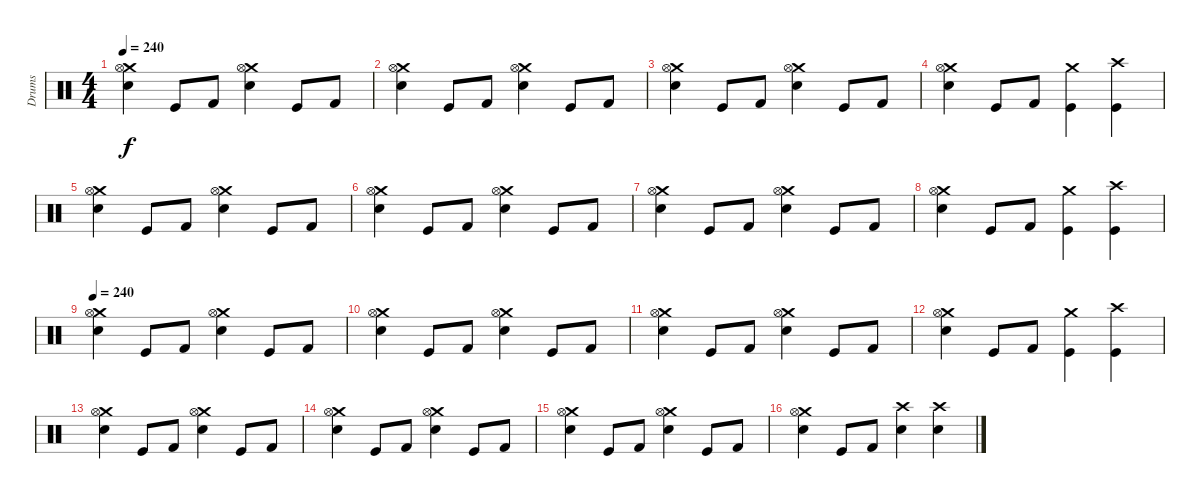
\track ("Drums" "Drums") {instrument percussion}
\staff {score}
\articulation defaults
\ts (4 4)
\tempo 240
\clef neutral
\ks c
("Crash medium (hit)" "Hi-Hat (open)" "Electric Snare (hit)").4{dy f} "Kick (hit)".8 "Kick (hit) 2".8 ("Crash medium (hit)" "Hi-Hat (open)" "Electric Snare (hit)").4 "Kick (hit)".8 "Kick (hit) 2".8 |
("Crash medium (hit)" "Hi-Hat (open)" "Electric Snare (hit)").4 "Kick (hit)".8 "Kick (hit) 2".8 ("Crash medium (hit)" "Hi-Hat (open)" "Electric Snare (hit)").4 "Kick (hit)".8 "Kick (hit) 2".8 |
("Crash medium (hit)" "Hi-Hat (open)" "Electric Snare (hit)").4 "Kick (hit)".8 "Kick (hit) 2".8 ("Crash medium (hit)" "Hi-Hat (open)" "Electric Snare (hit)").4 "Kick (hit)".8 "Kick (hit) 2".8 |
("Crash medium (hit)" "Hi-Hat (open)" "Electric Snare (hit)").4 "Kick (hit)".8 "Kick (hit) 2".8 ("Crash medium (hit)" "Kick (hit)").4 ("Crash high (hit)" "Kick (hit)").4 |
("Crash medium (hit)" "Hi-Hat (open)" "Electric Snare (hit)").4 "Kick (hit)".8 "Kick (hit) 2".8 ("Crash medium (hit)" "Hi-Hat (open)" "Electric Snare (hit)").4 "Kick (hit)".8 "Kick (hit) 2".8 |
("Crash medium (hit)" "Hi-Hat (open)" "Electric Snare (hit)").4 "Kick (hit)".8 "Kick (hit) 2".8 ("Crash medium (hit)" "Hi-Hat (open)" "Electric Snare (hit)").4 "Kick (hit)".8 "Kick (hit) 2".8 |
("Crash medium (hit)" "Hi-Hat (open)" "Electric Snare (hit)").4 "Kick (hit)".8 "Kick (hit) 2".8 ("Crash medium (hit)" "Hi-Hat (open)" "Electric Snare (hit)").4 "Kick (hit)".8 "Kick (hit) 2".8 |
("Crash medium (hit)" "Hi-Hat (open)" "Electric Snare (hit)").4 "Kick (hit)".8 "Kick (hit) 2".8 ("Crash medium (hit)" "Kick (hit)").4 ("Crash high (hit)" "Kick (hit)").4 |
\tempo 240
("Crash medium (hit)" "Hi-Hat (open)" "Electric Snare (hit)").4 "Kick (hit)".8 "Kick (hit) 2".8 ("Crash medium (hit)" "Hi-Hat (open)" "Electric Snare (hit)").4 "Kick (hit)".8 "Kick (hit) 2".8 |
("Crash medium (hit)" "Hi-Hat (open)" "Electric Snare (hit)").4 "Kick (hit)".8 "Kick (hit) 2".8 ("Crash medium (hit)" "Hi-Hat (open)" "Electric Snare (hit)").4 "Kick (hit)".8 "Kick (hit) 2".8 |
("Crash medium (hit)" "Hi-Hat (open)" "Electric Snare (hit)").4 "Kick (hit)".8 "Kick (hit) 2".8 ("Crash medium (hit)" "Hi-Hat (open)" "Electric Snare (hit)").4 "Kick (hit)".8 "Kick (hit) 2".8 |
("Crash medium (hit)" "Hi-Hat (open)" "Electric Snare (hit)").4 "Kick (hit)".8 "Kick (hit) 2".8 ("Crash medium (hit)" "Kick (hit)").4 ("Crash high (hit)" "Kick (hit)").4 |
("Crash medium (hit)" "Hi-Hat (open)" "Electric Snare (hit)").4 "Kick (hit)".8 "Kick (hit) 2".8 ("Crash medium (hit)" "Hi-Hat (open)" "Electric Snare (hit)").4 "Kick (hit)".8 "Kick (hit) 2".8 |
("Crash medium (hit)" "Hi-Hat (open)" "Electric Snare (hit)").4 "Kick (hit)".8 "Kick (hit) 2".8 ("Crash medium (hit)" "Hi-Hat (open)" "Electric Snare (hit)").4 "Kick (hit)".8 "Kick (hit) 2".8 |
("Crash medium (hit)" "Hi-Hat (open)" "Electric Snare (hit)").4 "Kick (hit)".8 "Kick (hit) 2".8 ("Crash medium (hit)" "Hi-Hat (open)" "Electric Snare (hit)").4 "Kick (hit)".8 "Kick (hit) 2".8 |
("Crash medium (hit)" "Hi-Hat (open)" "Electric Snare (hit)").4 "Kick (hit)".8 "Kick (hit) 2".8 ("Crash high (hit)" "Electric Snare (hit)").4 ("Crash high (hit)" "Electric Snare (hit)").4
